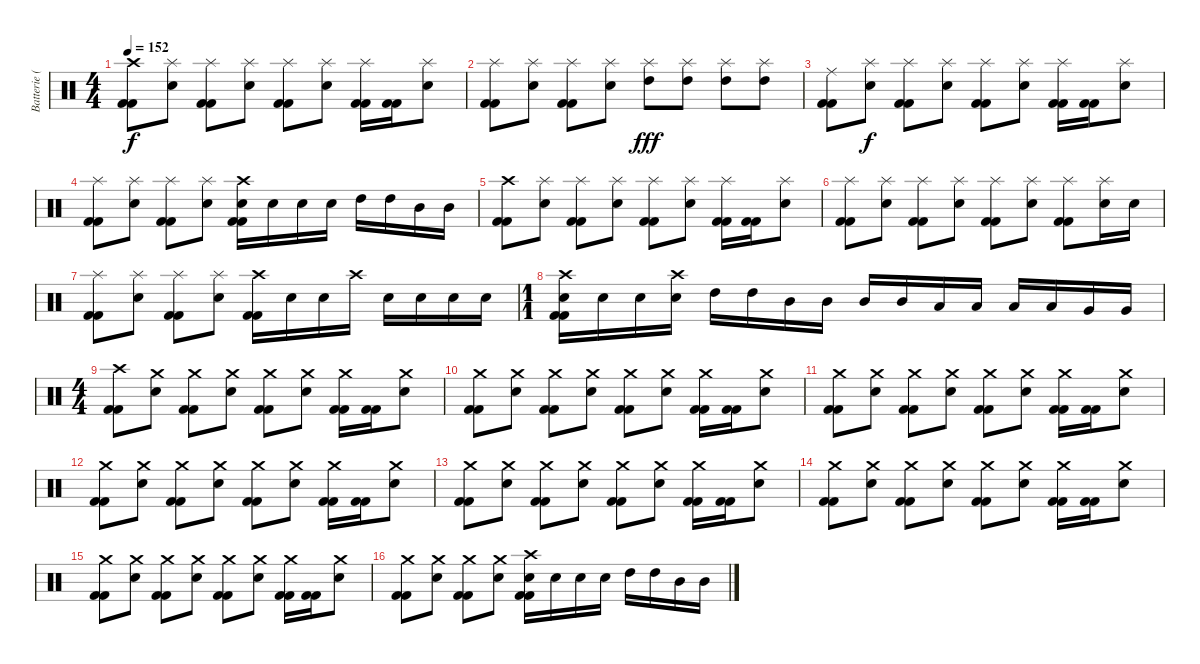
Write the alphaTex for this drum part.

\track ("Batterie (Ben Graves)" "Batterie (") {instrument percussion}
\staff {score}
\articulation defaults
\ts (4 4)
\tempo 152
\clef neutral
\ks c
("Crash high (hit)" "Kick (hit) 2" "Kick (hit) 2").8{dy f} ("Splash (hit)" "Electric Snare (hit)").8 ("Splash (hit)" "Kick (hit) 2" "Kick (hit) 2").8 ("Splash (hit)" "Electric Snare (hit)").8 ("Splash (hit)" "Kick (hit) 2" "Kick (hit) 2").8 ("Splash (hit)" "Electric Snare (hit)").8 ("Splash (hit)" "Kick (hit) 2" "Kick (hit) 2").16 ("Kick (hit) 2" "Kick (hit) 2").16 ("Splash (hit)" "Electric Snare (hit)").8 |
("Splash (hit)" "Kick (hit) 2" "Kick (hit) 2").8 ("Splash (hit)" "Electric Snare (hit)").8 ("Splash (hit)" "Kick (hit) 2" "Kick (hit) 2").8 ("Splash (hit)" "Electric Snare (hit)").8 ("Splash (hit)" "High Tom (hit)").8{dy fff} ("Splash (hit)" "High Tom (hit)").8 ("Splash (hit)" "High Tom (hit)").8 ("Splash (hit)" "High Tom (hit)").8 |
("Ride (middle)" "Kick (hit) 2" "Kick (hit) 2").8 ("Splash (hit)" "Electric Snare (hit)").8{dy f} ("Splash (hit)" "Kick (hit) 2" "Kick (hit) 2").8 ("Splash (hit)" "Electric Snare (hit)").8 ("Splash (hit)" "Kick (hit) 2" "Kick (hit) 2").8 ("Splash (hit)" "Electric Snare (hit)").8 ("Splash (hit)" "Kick (hit) 2" "Kick (hit) 2").16 ("Kick (hit) 2" "Kick (hit) 2").16 ("Splash (hit)" "Electric Snare (hit)").8 |
("Splash (hit)" "Kick (hit) 2" "Kick (hit) 2").8 ("Splash (hit)" "Electric Snare (hit)").8 ("Splash (hit)" "Kick (hit) 2" "Kick (hit) 2").8 ("Splash (hit)" "Electric Snare (hit)").8 ("Crash high (hit)" "Electric Snare (hit)" "Kick (hit) 2" "Kick (hit) 2").16 "Electric Snare (hit)".16 "Electric Snare (hit)".16 "Electric Snare (hit)".16 "High Tom (hit)".16 "High Tom (hit)".16 "Mid Tom (hit)".16 "Mid Tom (hit)".16 |
("Crash high (hit)" "Kick (hit) 2" "Kick (hit) 2").8 ("Splash (hit)" "Electric Snare (hit)").8 ("Splash (hit)" "Kick (hit) 2" "Kick (hit) 2").8 ("Splash (hit)" "Electric Snare (hit)").8 ("Splash (hit)" "Kick (hit) 2" "Kick (hit) 2").8 ("Splash (hit)" "Electric Snare (hit)").8 ("Splash (hit)" "Kick (hit) 2" "Kick (hit) 2").16 ("Kick (hit) 2" "Kick (hit) 2").16 ("Splash (hit)" "Electric Snare (hit)").8 |
("Splash (hit)" "Kick (hit) 2" "Kick (hit) 2").8 ("Splash (hit)" "Electric Snare (hit)").8 ("Splash (hit)" "Kick (hit) 2" "Kick (hit) 2").8 ("Splash (hit)" "Electric Snare (hit)").8 ("Splash (hit)" "Kick (hit) 2" "Kick (hit) 2").8 ("Splash (hit)" "Electric Snare (hit)").8 ("Splash (hit)" "Kick (hit) 2" "Kick (hit) 2").8 ("Splash (hit)" "Electric Snare (hit)").16 "Electric Snare (hit)".16 |
("Splash (hit)" "Kick (hit) 2" "Kick (hit) 2").8 ("Splash (hit)" "Electric Snare (hit)").8 ("Splash (hit)" "Kick (hit) 2" "Kick (hit) 2").8 ("Splash (hit)" "Electric Snare (hit)").8 ("Crash high (hit)" "Kick (hit) 2" "Kick (hit) 2").16 "Electric Snare (hit)".16 "Electric Snare (hit)".16 "Crash high (hit)".16 "Electric Snare (hit)".16 "Electric Snare (hit)".16 "Electric Snare (hit)".16 "Electric Snare (hit)".16 |
\ts (1 1)
("Crash high (hit)" "Electric Snare (hit)" "Kick (hit) 2" "Kick (hit) 2").16 "Electric Snare (hit)".16 "Electric Snare (hit)".16 ("Crash high (hit)" "Electric Snare (hit)").16 "High Tom (hit)".16 "High Tom (hit)".16 "Mid Tom (hit)".16 "Mid Tom (hit)".16 "Mid Tom (hit)".16 "Mid Tom (hit)".16 "Low Tom (hit)".16 "Low Tom (hit)".16 "Low Tom (hit)".16 "Low Tom (hit)".16 "Very Low Tom (hit)".16 "Very Low Tom (hit)".16 |
\ts (4 4)
("Crash high (hit)" "Kick (hit) 2" "Kick (hit) 2").8 ("Crash medium (hit)" "Electric Snare (hit)").8 ("Crash medium (hit)" "Kick (hit) 2" "Kick (hit) 2").8 ("Crash medium (hit)" "Electric Snare (hit)").8 ("Crash medium (hit)" "Kick (hit) 2" "Kick (hit) 2").8 ("Crash medium (hit)" "Electric Snare (hit)").8 ("Crash medium (hit)" "Kick (hit) 2" "Kick (hit) 2").16 ("Kick (hit) 2" "Kick (hit) 2").16 ("Crash medium (hit)" "Electric Snare (hit)").8 |
("Crash medium (hit)" "Kick (hit) 2" "Kick (hit) 2").8 ("Crash medium (hit)" "Electric Snare (hit)").8 ("Crash medium (hit)" "Kick (hit) 2" "Kick (hit) 2").8 ("Crash medium (hit)" "Electric Snare (hit)").8 ("Crash medium (hit)" "Kick (hit) 2" "Kick (hit) 2").8 ("Crash medium (hit)" "Electric Snare (hit)").8 ("Crash medium (hit)" "Kick (hit) 2" "Kick (hit) 2").16 ("Kick (hit) 2" "Kick (hit) 2").16 ("Crash medium (hit)" "Electric Snare (hit)").8 |
("Crash medium (hit)" "Kick (hit) 2" "Kick (hit) 2").8 ("Crash medium (hit)" "Electric Snare (hit)").8 ("Crash medium (hit)" "Kick (hit) 2" "Kick (hit) 2").8 ("Crash medium (hit)" "Electric Snare (hit)").8 ("Crash medium (hit)" "Kick (hit) 2" "Kick (hit) 2").8 ("Crash medium (hit)" "Electric Snare (hit)").8 ("Crash medium (hit)" "Kick (hit) 2" "Kick (hit) 2").16 ("Kick (hit) 2" "Kick (hit) 2").16 ("Crash medium (hit)" "Electric Snare (hit)").8 |
("Crash medium (hit)" "Kick (hit) 2" "Kick (hit) 2").8 ("Crash medium (hit)" "Electric Snare (hit)").8 ("Crash medium (hit)" "Kick (hit) 2" "Kick (hit) 2").8 ("Crash medium (hit)" "Electric Snare (hit)").8 ("Crash medium (hit)" "Kick (hit) 2" "Kick (hit) 2").8 ("Crash medium (hit)" "Electric Snare (hit)").8 ("Crash medium (hit)" "Kick (hit) 2" "Kick (hit) 2").16 ("Kick (hit) 2" "Kick (hit) 2").16 ("Crash medium (hit)" "Electric Snare (hit)").8 |
("Crash medium (hit)" "Kick (hit) 2" "Kick (hit) 2").8 ("Crash medium (hit)" "Electric Snare (hit)").8 ("Crash medium (hit)" "Kick (hit) 2" "Kick (hit) 2").8 ("Crash medium (hit)" "Electric Snare (hit)").8 ("Crash medium (hit)" "Kick (hit) 2" "Kick (hit) 2").8 ("Crash medium (hit)" "Electric Snare (hit)").8 ("Crash medium (hit)" "Kick (hit) 2" "Kick (hit) 2").16 ("Kick (hit) 2" "Kick (hit) 2").16 ("Crash medium (hit)" "Electric Snare (hit)").8 |
("Crash medium (hit)" "Kick (hit) 2" "Kick (hit) 2").8 ("Crash medium (hit)" "Electric Snare (hit)").8 ("Crash medium (hit)" "Kick (hit) 2" "Kick (hit) 2").8 ("Crash medium (hit)" "Electric Snare (hit)").8 ("Crash medium (hit)" "Kick (hit) 2" "Kick (hit) 2").8 ("Crash medium (hit)" "Electric Snare (hit)").8 ("Crash medium (hit)" "Kick (hit) 2" "Kick (hit) 2").16 ("Kick (hit) 2" "Kick (hit) 2").16 ("Crash medium (hit)" "Electric Snare (hit)").8 |
("Crash medium (hit)" "Kick (hit) 2" "Kick (hit) 2").8 ("Crash medium (hit)" "Electric Snare (hit)").8 ("Crash medium (hit)" "Kick (hit) 2" "Kick (hit) 2").8 ("Crash medium (hit)" "Electric Snare (hit)").8 ("Crash medium (hit)" "Kick (hit) 2" "Kick (hit) 2").8 ("Crash medium (hit)" "Electric Snare (hit)").8 ("Crash medium (hit)" "Kick (hit) 2" "Kick (hit) 2").16 ("Kick (hit) 2" "Kick (hit) 2").16 ("Crash medium (hit)" "Electric Snare (hit)").8 |
("Crash medium (hit)" "Kick (hit) 2" "Kick (hit) 2").8 ("Crash medium (hit)" "Electric Snare (hit)").8 ("Crash medium (hit)" "Kick (hit) 2" "Kick (hit) 2").8 ("Crash medium (hit)" "Electric Snare (hit)").8 ("Crash high (hit)" "Electric Snare (hit)" "Kick (hit) 2" "Kick (hit) 2").16 "Electric Snare (hit)".16 "Electric Snare (hit)".16 "Electric Snare (hit)".16 "High Tom (hit)".16 "High Tom (hit)".16 "Mid Tom (hit)".16 "Mid Tom (hit)".16
